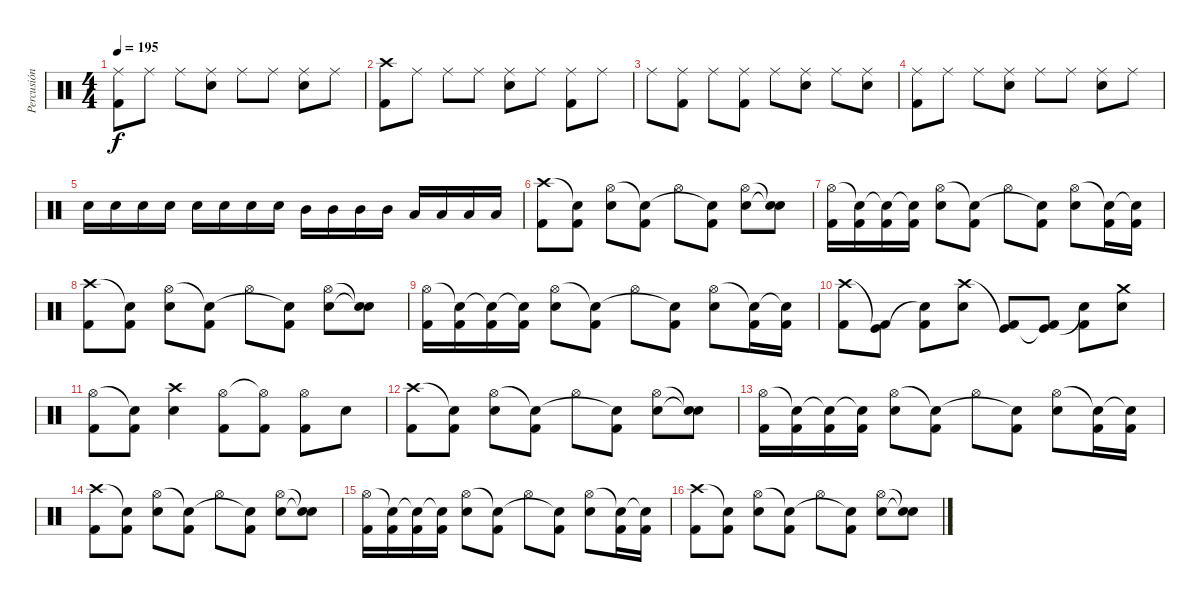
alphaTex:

\track ("Percusión" "Percusión") {instrument percussion}
\staff {score}
\articulation defaults
\ts (4 4)
\tempo 195
\clef neutral
\ks c
("Kick (hit) 2" "Ride (middle)").8{dy f} "Ride (middle)".8 "Ride (middle)".8 ("Snare (hit) 2" "Ride (middle)").8 "Ride (middle)".8 "Ride (middle)".8 ("Snare (hit) 2" "Ride (middle)").8 "Ride (middle)".8 |
("Kick (hit) 2" "Crash high (hit)").8 "Ride (middle)".8 "Ride (middle)".8 "Ride (middle)".8 ("Snare (hit) 2" "Ride (middle)").8 "Ride (middle)".8 ("Kick (hit) 2" "Ride (middle)").8 "Ride (middle)".8 |
"Ride (middle)".8 ("Kick (hit) 2" "Ride (middle)").8 "Ride (middle)".8 ("Kick (hit) 2" "Ride (middle)").8 "Ride (middle)".8 ("Snare (hit) 2" "Ride (middle)").8 "Ride (middle)".8 ("Snare (hit) 2" "Ride (middle)").8 |
("Kick (hit) 2" "Ride (middle)").8 "Ride (middle)".8 "Ride (middle)".8 ("Snare (hit) 2" "Ride (middle)").8 "Ride (middle)".8 "Ride (middle)".8 ("Snare (hit) 2" "Ride (middle)").8 "Ride (middle)".8 |
"Snare (hit) 2".16 "Snare (hit) 2".16 "Snare (hit) 2".16 "Snare (hit) 2".16 "Snare (hit) 2".16 "Snare (hit) 2".16 "Snare (hit) 2".16 "Snare (hit) 2".16 "Mid Tom (hit)".16 "Mid Tom (hit)".16 "Mid Tom (hit)".16 "Mid Tom (hit)".16 "Low Tom (hit)".16 "Low Tom (hit)".16 "Low Tom (hit)".16 "Low Tom (hit)".16 |
("Kick (hit) 2" "Crash high (hit)").8 ("Kick (hit) 2" "Snare (hit)"{t}).8 ("Snare (hit) 2" "Hi-Hat (open)").8 ("Kick (hit) 2" "Snare (hit)"{t}).8 "Hi-Hat (open)".8 ("Kick (hit) 2" "Snare (hit)"{t}).8 ("Snare (hit) 2" "Hi-Hat (open)").8 ("Snare (hit)"{t} "Snare (hit)"{t}).8 |
("Kick (hit) 2" "Hi-Hat (open)").16 ("Kick (hit) 2" "Snare (hit)"{t}).16 ("Kick (hit) 2" "Snare (hit)"{t}).16 ("Kick (hit) 2" "Snare (hit)"{t}).16 ("Snare (hit) 2" "Hi-Hat (open)").8 ("Kick (hit) 2" "Snare (hit)"{t}).8 "Hi-Hat (open)".8 ("Kick (hit) 2" "Snare (hit)"{t}).8 ("Snare (hit) 2" "Hi-Hat (open)").8 ("Kick (hit) 2" "Snare (hit)"{t}).16 ("Kick (hit) 2" "Snare (hit)"{t}).16 |
("Kick (hit) 2" "Crash high (hit)").8 ("Kick (hit) 2" "Snare (hit)"{t}).8 ("Snare (hit) 2" "Hi-Hat (open)").8 ("Kick (hit) 2" "Snare (hit)"{t}).8 "Hi-Hat (open)".8 ("Kick (hit) 2" "Snare (hit)"{t}).8 ("Snare (hit) 2" "Hi-Hat (open)").8 ("Snare (hit)"{t} "Snare (hit)"{t}).8 |
("Kick (hit) 2" "Hi-Hat (open)").16 ("Kick (hit) 2" "Snare (hit)"{t}).16 ("Kick (hit) 2" "Snare (hit)"{t}).16 ("Kick (hit) 2" "Snare (hit)"{t}).16 ("Snare (hit) 2" "Hi-Hat (open)").8 ("Kick (hit) 2" "Snare (hit)"{t}).8 "Hi-Hat (open)".8 ("Kick (hit) 2" "Snare (hit)"{t}).8 ("Snare (hit) 2" "Hi-Hat (open)").8 ("Kick (hit) 2" "Snare (hit)"{t}).16 ("Kick (hit) 2" "Snare (hit)"{t}).16 |
("Kick (hit) 2" "Crash high (hit)").8 ("Kick (hit) 2" "Kick (hit)"{t}).8 ("Kick (hit) 2" "Snare (hit)"{t}).8 ("Snare (hit) 2" "Crash high (hit)").8 ("Kick (hit) 2" "Kick (hit)"{t}).8 ("Kick (hit) 2" "Kick (hit)"{t}).8 ("Kick (hit) 2" "Snare (hit)"{t}).8 ("Snare (hit) 2" "Crash medium (hit)").8 |
("Kick (hit) 2" "Hi-Hat (open)").8 ("Kick (hit) 2" "Snare (hit)"{t}).8 ("Snare (hit) 2" "Crash high (hit)").4 ("Kick (hit) 2" "Hi-Hat (open)").8 ("Kick (hit) 2" "Hi-Hat (open)"{t}).8 ("Kick (hit) 2" "Hi-Hat (open)").8 "Snare (hit) 2".8 |
("Kick (hit) 2" "Crash high (hit)").8 ("Kick (hit) 2" "Snare (hit)"{t}).8 ("Snare (hit) 2" "Hi-Hat (open)").8 ("Kick (hit) 2" "Snare (hit)"{t}).8 "Hi-Hat (open)".8 ("Kick (hit) 2" "Snare (hit)"{t}).8 ("Snare (hit) 2" "Hi-Hat (open)").8 ("Snare (hit)"{t} "Snare (hit)"{t}).8 |
("Kick (hit) 2" "Hi-Hat (open)").16 ("Kick (hit) 2" "Snare (hit)"{t}).16 ("Kick (hit) 2" "Snare (hit)"{t}).16 ("Kick (hit) 2" "Snare (hit)"{t}).16 ("Snare (hit) 2" "Hi-Hat (open)").8 ("Kick (hit) 2" "Snare (hit)"{t}).8 "Hi-Hat (open)".8 ("Kick (hit) 2" "Snare (hit)"{t}).8 ("Snare (hit) 2" "Hi-Hat (open)").8 ("Kick (hit) 2" "Snare (hit)"{t}).16 ("Kick (hit) 2" "Snare (hit)"{t}).16 |
("Kick (hit) 2" "Crash high (hit)").8 ("Kick (hit) 2" "Snare (hit)"{t}).8 ("Snare (hit) 2" "Hi-Hat (open)").8 ("Kick (hit) 2" "Snare (hit)"{t}).8 "Hi-Hat (open)".8 ("Kick (hit) 2" "Snare (hit)"{t}).8 ("Snare (hit) 2" "Hi-Hat (open)").8 ("Snare (hit)"{t} "Snare (hit)"{t}).8 |
("Kick (hit) 2" "Hi-Hat (open)").16 ("Kick (hit) 2" "Snare (hit)"{t}).16 ("Kick (hit) 2" "Snare (hit)"{t}).16 ("Kick (hit) 2" "Snare (hit)"{t}).16 ("Snare (hit) 2" "Hi-Hat (open)").8 ("Kick (hit) 2" "Snare (hit)"{t}).8 "Hi-Hat (open)".8 ("Kick (hit) 2" "Snare (hit)"{t}).8 ("Snare (hit) 2" "Hi-Hat (open)").8 ("Kick (hit) 2" "Snare (hit)"{t}).16 ("Kick (hit) 2" "Snare (hit)"{t}).16 |
("Kick (hit) 2" "Crash high (hit)").8 ("Kick (hit) 2" "Snare (hit)"{t}).8 ("Snare (hit) 2" "Hi-Hat (open)").8 ("Kick (hit) 2" "Snare (hit)"{t}).8 "Hi-Hat (open)".8 ("Kick (hit) 2" "Snare (hit)"{t}).8 ("Snare (hit) 2" "Hi-Hat (open)").8 ("Snare (hit)"{t} "Snare (hit)"{t}).8
